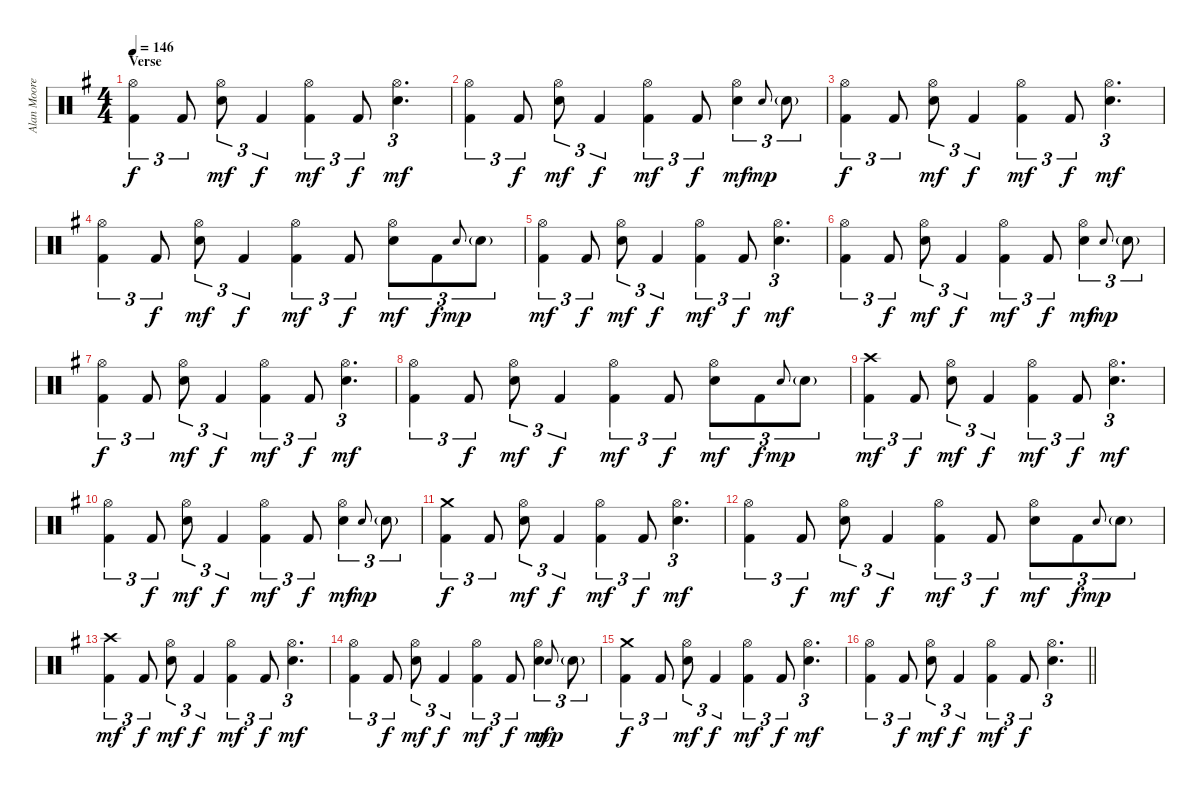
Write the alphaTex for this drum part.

\track ("Alan Moore" "Alan Moore") {instrument percussion}
\staff {score}
\articulation defaults
\ts (4 4)
\section ("" "Verse")
\tempo 146
\clef neutral
\ks eminor
("Hi-Hat (open)" "Kick (hit) 2").4{tu (3 2) dy f} "Kick (hit) 2".8{tu (3 2)} ("Hi-Hat (open)" "Electric Snare (hit)").8{tu (3 2) dy mf} "Kick (hit) 2".4{tu (3 2) dy f} ("Hi-Hat (open)" "Kick (hit) 2").4{tu (3 2) dy mf} "Kick (hit) 2".8{tu (3 2) dy f} ("Hi-Hat (open)" "Electric Snare (hit)").4{d tu (3 2) dy mf} |
("Hi-Hat (open)" "Kick (hit) 2").4{tu (3 2)} "Kick (hit) 2".8{tu (3 2) dy f} ("Hi-Hat (open)" "Electric Snare (hit)").8{tu (3 2) dy mf} "Kick (hit) 2".4{tu (3 2) dy f} ("Hi-Hat (open)" "Kick (hit) 2").4{tu (3 2) dy mf} "Kick (hit) 2".8{tu (3 2) dy f} ("Hi-Hat (open)" "Electric Snare (hit)").4{tu (3 2) dy mf} "Electric Snare (hit)".8{gr onbeat dy mp} "Electric Snare (hit)"{g}.8{tu (3 2)} |
("Hi-Hat (open)" "Kick (hit) 2").4{tu (3 2) dy f} "Kick (hit) 2".8{tu (3 2)} ("Hi-Hat (open)" "Electric Snare (hit)").8{tu (3 2) dy mf} "Kick (hit) 2".4{tu (3 2) dy f} ("Hi-Hat (open)" "Kick (hit) 2").4{tu (3 2) dy mf} "Kick (hit) 2".8{tu (3 2) dy f} ("Hi-Hat (open)" "Electric Snare (hit)").4{d tu (3 2) dy mf} |
("Hi-Hat (open)" "Kick (hit) 2").4{tu (3 2)} "Kick (hit) 2".8{tu (3 2) dy f} ("Hi-Hat (open)" "Electric Snare (hit)").8{tu (3 2) dy mf} "Kick (hit) 2".4{tu (3 2) dy f} ("Hi-Hat (open)" "Kick (hit) 2").4{tu (3 2) dy mf} "Kick (hit) 2".8{tu (3 2) dy f} ("Hi-Hat (open)" "Electric Snare (hit)").8{tu (3 2) dy mf} "Kick (hit) 2".8{tu (3 2) dy f} "Electric Snare (hit)".8{gr onbeat dy mp} "Electric Snare (hit)"{g}.8{tu (3 2)} |
("Hi-Hat (open)" "Kick (hit) 2").4{tu (3 2) dy mf} "Kick (hit) 2".8{tu (3 2) dy f} ("Hi-Hat (open)" "Electric Snare (hit)").8{tu (3 2) dy mf} "Kick (hit) 2".4{tu (3 2) dy f} ("Hi-Hat (open)" "Kick (hit) 2").4{tu (3 2) dy mf} "Kick (hit) 2".8{tu (3 2) dy f} ("Hi-Hat (open)" "Electric Snare (hit)").4{d tu (3 2) dy mf} |
("Hi-Hat (open)" "Kick (hit) 2").4{tu (3 2)} "Kick (hit) 2".8{tu (3 2) dy f} ("Hi-Hat (open)" "Electric Snare (hit)").8{tu (3 2) dy mf} "Kick (hit) 2".4{tu (3 2) dy f} ("Hi-Hat (open)" "Kick (hit) 2").4{tu (3 2) dy mf} "Kick (hit) 2".8{tu (3 2) dy f} ("Hi-Hat (open)" "Electric Snare (hit)").4{tu (3 2) dy mf} "Electric Snare (hit)".8{gr onbeat dy mp} "Electric Snare (hit)"{g}.8{tu (3 2)} |
("Hi-Hat (open)" "Kick (hit) 2").4{tu (3 2) dy f} "Kick (hit) 2".8{tu (3 2)} ("Hi-Hat (open)" "Electric Snare (hit)").8{tu (3 2) dy mf} "Kick (hit) 2".4{tu (3 2) dy f} ("Hi-Hat (open)" "Kick (hit) 2").4{tu (3 2) dy mf} "Kick (hit) 2".8{tu (3 2) dy f} ("Hi-Hat (open)" "Electric Snare (hit)").4{d tu (3 2) dy mf} |
("Hi-Hat (open)" "Kick (hit) 2").4{tu (3 2)} "Kick (hit) 2".8{tu (3 2) dy f} ("Hi-Hat (open)" "Electric Snare (hit)").8{tu (3 2) dy mf} "Kick (hit) 2".4{tu (3 2) dy f} ("Hi-Hat (open)" "Kick (hit) 2").4{tu (3 2) dy mf} "Kick (hit) 2".8{tu (3 2) dy f} ("Hi-Hat (open)" "Electric Snare (hit)").8{tu (3 2) dy mf} "Kick (hit) 2".8{tu (3 2) dy f} "Electric Snare (hit)".8{gr onbeat dy mp} "Electric Snare (hit)"{g}.8{tu (3 2)} |
("Crash high (hit)" "Kick (hit) 2").4{tu (3 2) dy mf} "Kick (hit) 2".8{tu (3 2) dy f} ("Hi-Hat (open)" "Electric Snare (hit)").8{tu (3 2) dy mf} "Kick (hit) 2".4{tu (3 2) dy f} ("Hi-Hat (open)" "Kick (hit) 2").4{tu (3 2) dy mf} "Kick (hit) 2".8{tu (3 2) dy f} ("Hi-Hat (open)" "Electric Snare (hit)").4{d tu (3 2) dy mf} |
("Hi-Hat (open)" "Kick (hit) 2").4{tu (3 2)} "Kick (hit) 2".8{tu (3 2) dy f} ("Hi-Hat (open)" "Electric Snare (hit)").8{tu (3 2) dy mf} "Kick (hit) 2".4{tu (3 2) dy f} ("Hi-Hat (open)" "Kick (hit) 2").4{tu (3 2) dy mf} "Kick (hit) 2".8{tu (3 2) dy f} ("Hi-Hat (open)" "Electric Snare (hit)").4{tu (3 2) dy mf} "Electric Snare (hit)".8{gr onbeat dy mp} "Electric Snare (hit)"{g}.8{tu (3 2)} |
("Crash medium (hit)" "Kick (hit) 2").4{tu (3 2) dy f} "Kick (hit) 2".8{tu (3 2)} ("Hi-Hat (open)" "Electric Snare (hit)").8{tu (3 2) dy mf} "Kick (hit) 2".4{tu (3 2) dy f} ("Hi-Hat (open)" "Kick (hit) 2").4{tu (3 2) dy mf} "Kick (hit) 2".8{tu (3 2) dy f} ("Hi-Hat (open)" "Electric Snare (hit)").4{d tu (3 2) dy mf} |
("Hi-Hat (open)" "Kick (hit) 2").4{tu (3 2)} "Kick (hit) 2".8{tu (3 2) dy f} ("Hi-Hat (open)" "Electric Snare (hit)").8{tu (3 2) dy mf} "Kick (hit) 2".4{tu (3 2) dy f} ("Hi-Hat (open)" "Kick (hit) 2").4{tu (3 2) dy mf} "Kick (hit) 2".8{tu (3 2) dy f} ("Hi-Hat (open)" "Electric Snare (hit)").8{tu (3 2) dy mf} "Kick (hit) 2".8{tu (3 2) dy f} "Electric Snare (hit)".8{gr onbeat dy mp} "Electric Snare (hit)"{g}.8{tu (3 2)} |
("Crash high (hit)" "Kick (hit) 2").4{tu (3 2) dy mf} "Kick (hit) 2".8{tu (3 2) dy f} ("Hi-Hat (open)" "Electric Snare (hit)").8{tu (3 2) dy mf} "Kick (hit) 2".4{tu (3 2) dy f} ("Hi-Hat (open)" "Kick (hit) 2").4{tu (3 2) dy mf} "Kick (hit) 2".8{tu (3 2) dy f} ("Hi-Hat (open)" "Electric Snare (hit)").4{d tu (3 2) dy mf} |
("Hi-Hat (open)" "Kick (hit) 2").4{tu (3 2)} "Kick (hit) 2".8{tu (3 2) dy f} ("Hi-Hat (open)" "Electric Snare (hit)").8{tu (3 2) dy mf} "Kick (hit) 2".4{tu (3 2) dy f} ("Hi-Hat (open)" "Kick (hit) 2").4{tu (3 2) dy mf} "Kick (hit) 2".8{tu (3 2) dy f} ("Hi-Hat (open)" "Electric Snare (hit)").4{tu (3 2) dy mf} "Electric Snare (hit)".8{gr onbeat dy mp} "Electric Snare (hit)"{g}.8{tu (3 2)} |
("Crash medium (hit)" "Kick (hit) 2").4{tu (3 2) dy f} "Kick (hit) 2".8{tu (3 2)} ("Hi-Hat (open)" "Electric Snare (hit)").8{tu (3 2) dy mf} "Kick (hit) 2".4{tu (3 2) dy f} ("Hi-Hat (open)" "Kick (hit) 2").4{tu (3 2) dy mf} "Kick (hit) 2".8{tu (3 2) dy f} ("Hi-Hat (open)" "Electric Snare (hit)").4{d tu (3 2) dy mf} |
\barLineRight lightlight
("Hi-Hat (open)" "Kick (hit) 2").4{tu (3 2)} "Kick (hit) 2".8{tu (3 2) dy f} ("Hi-Hat (open)" "Electric Snare (hit)").8{tu (3 2) dy mf} "Kick (hit) 2".4{tu (3 2) dy f} ("Hi-Hat (open)" "Kick (hit) 2").4{tu (3 2) dy mf} "Kick (hit) 2".8{tu (3 2) dy f} ("Hi-Hat (open)" "Electric Snare (hit)").4{d tu (3 2)}
